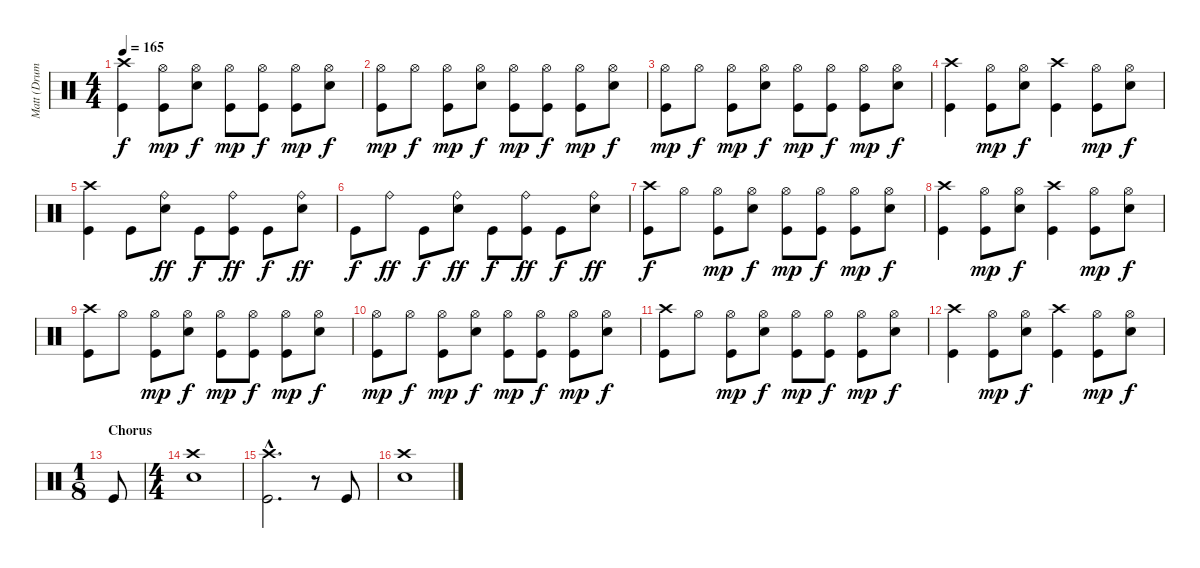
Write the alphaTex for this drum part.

\track ("Matt (Drums)" "Matt (Drum") {instrument percussion}
\staff {score}
\articulation defaults
\ts (4 4)
\tempo 165
\clef neutral
\ks c
("Crash high (hit)" "Kick (hit)").4{dy f} ("Hi-Hat (open)" "Kick (hit)").8{dy mp} ("Hi-Hat (open)" "Electric Snare (hit)").8{dy f} ("Hi-Hat (open)" "Kick (hit)").8{dy mp} ("Hi-Hat (open)" "Kick (hit)").8{dy f} ("Hi-Hat (open)" "Kick (hit)").8{dy mp} ("Hi-Hat (open)" "Electric Snare (hit)").8{dy f} |
("Hi-Hat (open)" "Kick (hit)").8{dy mp} "Hi-Hat (open)".8{dy f} ("Hi-Hat (open)" "Kick (hit)").8{dy mp} ("Hi-Hat (open)" "Electric Snare (hit)").8{dy f} ("Hi-Hat (open)" "Kick (hit)").8{dy mp} ("Hi-Hat (open)" "Kick (hit)").8{dy f} ("Hi-Hat (open)" "Kick (hit)").8{dy mp} ("Hi-Hat (open)" "Electric Snare (hit)").8{dy f} |
("Hi-Hat (open)" "Kick (hit)").8{dy mp} "Hi-Hat (open)".8{dy f} ("Hi-Hat (open)" "Kick (hit)").8{dy mp} ("Hi-Hat (open)" "Electric Snare (hit)").8{dy f} ("Hi-Hat (open)" "Kick (hit)").8{dy mp} ("Hi-Hat (open)" "Kick (hit)").8{dy f} ("Hi-Hat (open)" "Kick (hit)").8{dy mp} ("Hi-Hat (open)" "Electric Snare (hit)").8{dy f} |
("Crash high (hit)" "Kick (hit)").4 ("Hi-Hat (open)" "Kick (hit)").8{dy mp} ("Hi-Hat (open)" "Electric Snare (hit)").8{dy f} ("Crash high (hit)" "Kick (hit)").4 ("Hi-Hat (open)" "Kick (hit)").8{dy mp} ("Hi-Hat (open)" "Electric Snare (hit)").8{dy f} |
("Crash high (hit)" "Kick (hit)").4 "Kick (hit)".8 ("Ride (bell)" "Electric Snare (hit)").8{dy ff} "Kick (hit)".8{dy f} ("Ride (bell)" "Kick (hit)").8{dy ff} "Kick (hit)".8{dy f} ("Ride (bell)" "Electric Snare (hit)").8{dy ff} |
"Kick (hit)".8{dy f} "Ride (bell)".8{dy ff} "Kick (hit)".8{dy f} ("Ride (bell)" "Electric Snare (hit)").8{dy ff} "Kick (hit)".8{dy f} ("Ride (bell)" "Kick (hit)").8{dy ff} "Kick (hit)".8{dy f} ("Ride (bell)" "Electric Snare (hit)").8{dy ff} |
("Crash high (hit)" "Kick (hit)").8{dy f} "Hi-Hat (open)".8 ("Hi-Hat (open)" "Kick (hit)").8{dy mp} ("Hi-Hat (open)" "Electric Snare (hit)").8{dy f} ("Hi-Hat (open)" "Kick (hit)").8{dy mp} ("Hi-Hat (open)" "Kick (hit)").8{dy f} ("Hi-Hat (open)" "Kick (hit)").8{dy mp} ("Hi-Hat (open)" "Electric Snare (hit)").8{dy f} |
("Crash high (hit)" "Kick (hit)").4 ("Hi-Hat (open)" "Kick (hit)").8{dy mp} ("Hi-Hat (open)" "Electric Snare (hit)").8{dy f} ("Crash high (hit)" "Kick (hit)").4 ("Hi-Hat (open)" "Kick (hit)").8{dy mp} ("Hi-Hat (open)" "Electric Snare (hit)").8{dy f} |
("Crash high (hit)" "Kick (hit)").8 "Hi-Hat (open)".8 ("Hi-Hat (open)" "Kick (hit)").8{dy mp} ("Hi-Hat (open)" "Electric Snare (hit)").8{dy f} ("Hi-Hat (open)" "Kick (hit)").8{dy mp} ("Hi-Hat (open)" "Kick (hit)").8{dy f} ("Hi-Hat (open)" "Kick (hit)").8{dy mp} ("Hi-Hat (open)" "Electric Snare (hit)").8{dy f} |
("Hi-Hat (open)" "Kick (hit)").8{dy mp} "Hi-Hat (open)".8{dy f} ("Hi-Hat (open)" "Kick (hit)").8{dy mp} ("Hi-Hat (open)" "Electric Snare (hit)").8{dy f} ("Hi-Hat (open)" "Kick (hit)").8{dy mp} ("Hi-Hat (open)" "Kick (hit)").8{dy f} ("Hi-Hat (open)" "Kick (hit)").8{dy mp} ("Hi-Hat (open)" "Electric Snare (hit)").8{dy f} |
("Crash high (hit)" "Kick (hit)").8 "Hi-Hat (open)".8 ("Hi-Hat (open)" "Kick (hit)").8{dy mp} ("Hi-Hat (open)" "Electric Snare (hit)").8{dy f} ("Hi-Hat (open)" "Kick (hit)").8{dy mp} ("Hi-Hat (open)" "Kick (hit)").8{dy f} ("Hi-Hat (open)" "Kick (hit)").8{dy mp} ("Hi-Hat (open)" "Electric Snare (hit)").8{dy f} |
("Crash high (hit)" "Kick (hit)").4 ("Hi-Hat (open)" "Kick (hit)").8{dy mp} ("Hi-Hat (open)" "Electric Snare (hit)").8{dy f} ("Crash high (hit)" "Kick (hit)").4 ("Hi-Hat (open)" "Kick (hit)").8{dy mp} ("Hi-Hat (open)" "Electric Snare (hit)").8{dy f} |
\ts (1 8)
\section ("" "Chorus")
"Kick (hit)".8 |
\ts (4 4)
("Crash high (hit)" "Electric Snare (hit)").1 |
("Crash high (hit)"{hac} "Kick (hit)"{hac}).2{d} r.8 "Kick (hit)".8 |
("Crash high (hit)" "Electric Snare (hit)").1
